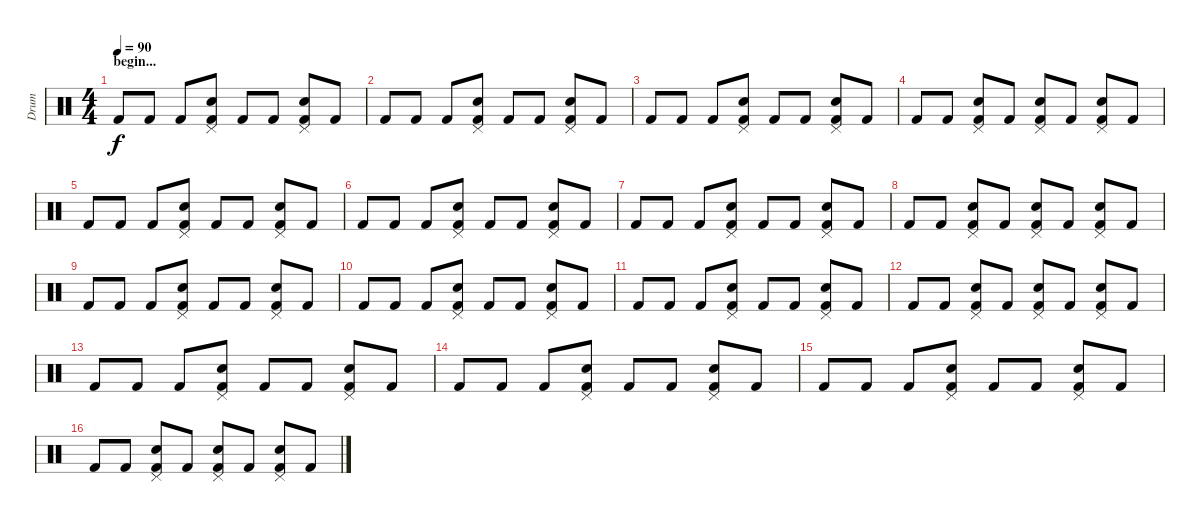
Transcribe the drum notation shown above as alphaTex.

\track ("Drum" "Drum") {instrument percussion}
\staff {score}
\articulation defaults
\ts (4 4)
\section ("" "begin...")
\tempo 90
\clef neutral
\ks c "Kick (hit) 2".8{dy f} "Kick (hit) 2".8 "Kick (hit) 2".8
("Snare (hit) 2" "Pedal Hi-Hat (hit)" "Kick (hit) 2").8 "Kick (hit) 2".8 "Kick (hit) 2".8 ("Snare (hit) 2" "Pedal Hi-Hat (hit)" "Kick (hit) 2").8 "Kick (hit) 2".8 |
"Kick (hit) 2".8 "Kick (hit) 2".8 "Kick (hit) 2".8 ("Pedal Hi-Hat (hit)" "Snare (hit) 2" "Kick (hit) 2").8 "Kick (hit) 2".8 "Kick (hit) 2".8 ("Pedal Hi-Hat (hit)" "Snare (hit) 2" "Kick (hit) 2").8 "Kick (hit) 2".8 |
"Kick (hit) 2".8 "Kick (hit) 2".8 "Kick (hit) 2".8 ("Snare (hit) 2" "Pedal Hi-Hat (hit)" "Kick (hit) 2").8 "Kick (hit) 2".8 "Kick (hit) 2".8 ("Snare (hit) 2" "Pedal Hi-Hat (hit)" "Kick (hit) 2").8 "Kick (hit) 2".8 |
"Kick (hit) 2".8 "Kick (hit) 2".8 ("Snare (hit) 2" "Pedal Hi-Hat (hit)" "Kick (hit) 2").8 "Kick (hit) 2".8 ("Snare (hit) 2" "Pedal Hi-Hat (hit)" "Kick (hit) 2").8 "Kick (hit) 2".8 ("Snare (hit) 2" "Pedal Hi-Hat (hit)" "Kick (hit) 2").8 "Kick (hit) 2".8 |
"Kick (hit) 2".8 "Kick (hit) 2".8 "Kick (hit) 2".8 ("Snare (hit) 2" "Pedal Hi-Hat (hit)" "Kick (hit) 2").8 "Kick (hit) 2".8 "Kick (hit) 2".8 ("Snare (hit) 2" "Pedal Hi-Hat (hit)" "Kick (hit) 2").8 "Kick (hit) 2".8 |
"Kick (hit) 2".8 "Kick (hit) 2".8 "Kick (hit) 2".8 ("Pedal Hi-Hat (hit)" "Snare (hit) 2" "Kick (hit) 2").8 "Kick (hit) 2".8 "Kick (hit) 2".8 ("Pedal Hi-Hat (hit)" "Snare (hit) 2" "Kick (hit) 2").8 "Kick (hit) 2".8 |
"Kick (hit) 2".8 "Kick (hit) 2".8 "Kick (hit) 2".8 ("Snare (hit) 2" "Pedal Hi-Hat (hit)" "Kick (hit) 2").8 "Kick (hit) 2".8 "Kick (hit) 2".8 ("Snare (hit) 2" "Pedal Hi-Hat (hit)" "Kick (hit) 2").8 "Kick (hit) 2".8 |
"Kick (hit) 2".8 "Kick (hit) 2".8 ("Snare (hit) 2" "Pedal Hi-Hat (hit)" "Kick (hit) 2").8 "Kick (hit) 2".8 ("Snare (hit) 2" "Pedal Hi-Hat (hit)" "Kick (hit) 2").8 "Kick (hit) 2".8 ("Snare (hit) 2" "Pedal Hi-Hat (hit)" "Kick (hit) 2").8 "Kick (hit) 2".8 |
"Kick (hit) 2".8 "Kick (hit) 2".8 "Kick (hit) 2".8 ("Snare (hit) 2" "Pedal Hi-Hat (hit)" "Kick (hit) 2").8 "Kick (hit) 2".8 "Kick (hit) 2".8 ("Snare (hit) 2" "Pedal Hi-Hat (hit)" "Kick (hit) 2").8 "Kick (hit) 2".8 |
"Kick (hit) 2".8 "Kick (hit) 2".8 "Kick (hit) 2".8 ("Pedal Hi-Hat (hit)" "Snare (hit) 2" "Kick (hit) 2").8 "Kick (hit) 2".8 "Kick (hit) 2".8 ("Pedal Hi-Hat (hit)" "Snare (hit) 2" "Kick (hit) 2").8 "Kick (hit) 2".8 |
"Kick (hit) 2".8 "Kick (hit) 2".8 "Kick (hit) 2".8 ("Snare (hit) 2" "Pedal Hi-Hat (hit)" "Kick (hit) 2").8 "Kick (hit) 2".8 "Kick (hit) 2".8 ("Snare (hit) 2" "Pedal Hi-Hat (hit)" "Kick (hit) 2").8 "Kick (hit) 2".8 |
"Kick (hit) 2".8 "Kick (hit) 2".8 ("Snare (hit) 2" "Pedal Hi-Hat (hit)" "Kick (hit) 2").8 "Kick (hit) 2".8 ("Snare (hit) 2" "Pedal Hi-Hat (hit)" "Kick (hit) 2").8 "Kick (hit) 2".8 ("Snare (hit) 2" "Pedal Hi-Hat (hit)" "Kick (hit) 2").8 "Kick (hit) 2".8 |
"Kick (hit) 2".8 "Kick (hit) 2".8 "Kick (hit) 2".8 ("Snare (hit) 2" "Pedal Hi-Hat (hit)" "Kick (hit) 2").8 "Kick (hit) 2".8 "Kick (hit) 2".8 ("Snare (hit) 2" "Pedal Hi-Hat (hit)" "Kick (hit) 2").8 "Kick (hit) 2".8 |
"Kick (hit) 2".8 "Kick (hit) 2".8 "Kick (hit) 2".8 ("Pedal Hi-Hat (hit)" "Snare (hit) 2" "Kick (hit) 2").8 "Kick (hit) 2".8 "Kick (hit) 2".8 ("Pedal Hi-Hat (hit)" "Snare (hit) 2" "Kick (hit) 2").8 "Kick (hit) 2".8 |
"Kick (hit) 2".8 "Kick (hit) 2".8 "Kick (hit) 2".8 ("Snare (hit) 2" "Pedal Hi-Hat (hit)" "Kick (hit) 2").8 "Kick (hit) 2".8 "Kick (hit) 2".8 ("Snare (hit) 2" "Pedal Hi-Hat (hit)" "Kick (hit) 2").8 "Kick (hit) 2".8 |
"Kick (hit) 2".8 "Kick (hit) 2".8 ("Snare (hit) 2" "Pedal Hi-Hat (hit)" "Kick (hit) 2").8 "Kick (hit) 2".8 ("Snare (hit) 2" "Pedal Hi-Hat (hit)" "Kick (hit) 2").8 "Kick (hit) 2".8 ("Snare (hit) 2" "Pedal Hi-Hat (hit)" "Kick (hit) 2").8 "Kick (hit) 2".8
